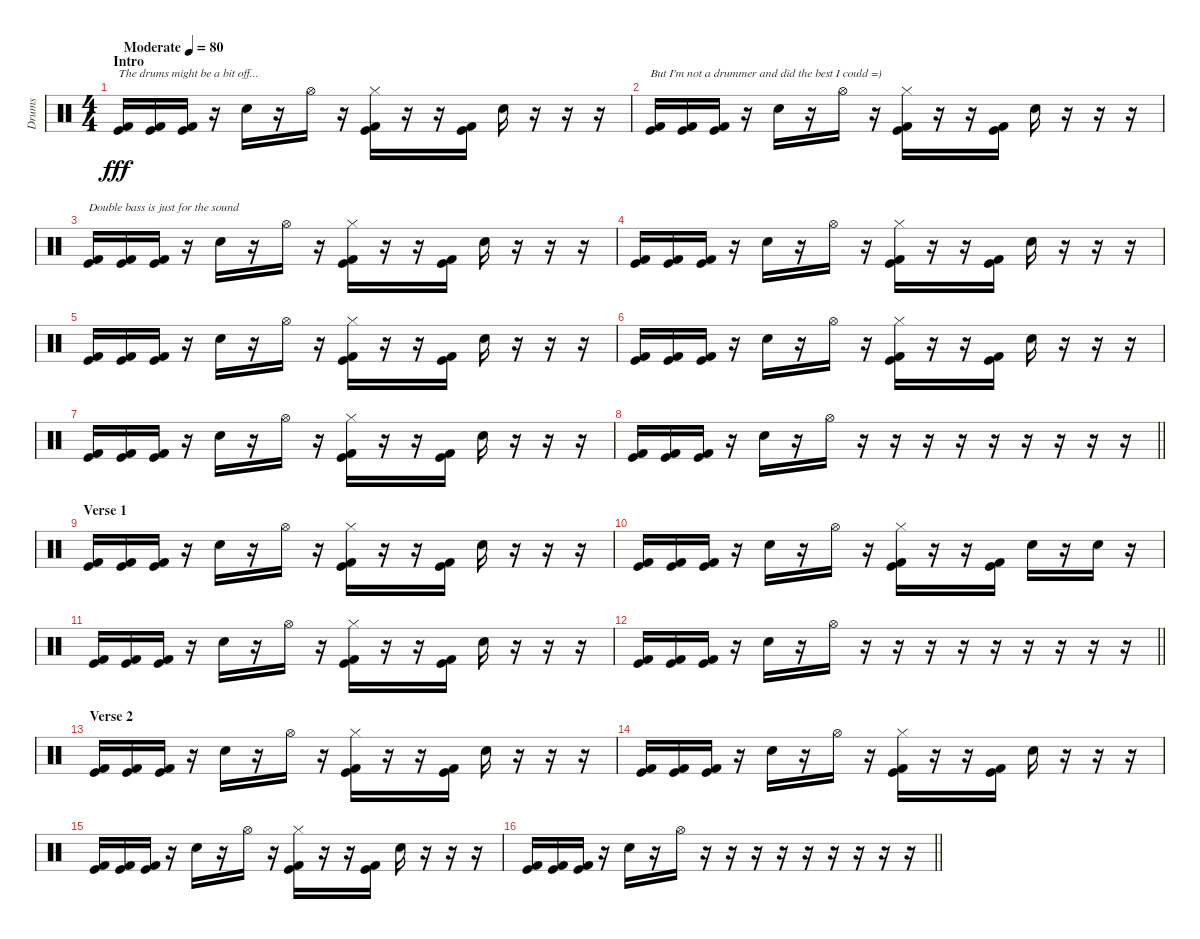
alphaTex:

\track ("Drums" "Drums") {instrument percussion}
\staff {score}
\articulation defaults
\ts (4 4)
\section ("" "Intro")
\tempo (80 "Moderate")
\clef neutral
\ks c
("Kick (hit)" "Kick (hit) 2").16{txt "The drums might be a bit off..." dy fff} ("Kick (hit)" "Kick (hit) 2").16 ("Kick (hit)" "Kick (hit) 2").16 r.16 "Snare (hit) 2".16 r.16 "Hi-Hat (open)".16 r.16 ("Hi-Hat (closed)" "Kick (hit)" "Kick (hit) 2").16 r.16 r.16 ("Kick (hit)" "Kick (hit) 2").16 "Snare (hit) 2".16 r.16 r.16 r.16 |
("Kick (hit)" "Kick (hit) 2").16{txt "But I'm not a drummer and did the best I could =)"} ("Kick (hit)" "Kick (hit) 2").16 ("Kick (hit)" "Kick (hit) 2").16 r.16 "Snare (hit) 2".16 r.16 "Hi-Hat (open)".16 r.16 ("Hi-Hat (closed)" "Kick (hit)" "Kick (hit) 2").16 r.16 r.16 ("Kick (hit)" "Kick (hit) 2").16 "Snare (hit) 2".16 r.16 r.16 r.16 |
("Kick (hit)" "Kick (hit) 2").16{txt "Double bass is just for the sound"} ("Kick (hit)" "Kick (hit) 2").16 ("Kick (hit)" "Kick (hit) 2").16 r.16 "Snare (hit) 2".16 r.16 "Hi-Hat (open)".16 r.16 ("Hi-Hat (closed)" "Kick (hit)" "Kick (hit) 2").16 r.16 r.16 ("Kick (hit)" "Kick (hit) 2").16 "Snare (hit) 2".16 r.16 r.16 r.16 |
("Kick (hit)" "Kick (hit) 2").16 ("Kick (hit)" "Kick (hit) 2").16 ("Kick (hit)" "Kick (hit) 2").16 r.16 "Snare (hit) 2".16 r.16 "Hi-Hat (open)".16 r.16 ("Hi-Hat (closed)" "Kick (hit)" "Kick (hit) 2").16 r.16 r.16 ("Kick (hit)" "Kick (hit) 2").16 "Snare (hit) 2".16 r.16 r.16 r.16 |
("Kick (hit)" "Kick (hit) 2").16 ("Kick (hit)" "Kick (hit) 2").16 ("Kick (hit)" "Kick (hit) 2").16 r.16 "Snare (hit) 2".16 r.16 "Hi-Hat (open)".16 r.16 ("Hi-Hat (closed)" "Kick (hit)" "Kick (hit) 2").16 r.16 r.16 ("Kick (hit)" "Kick (hit) 2").16 "Snare (hit) 2".16 r.16 r.16 r.16 |
("Kick (hit)" "Kick (hit) 2").16 ("Kick (hit)" "Kick (hit) 2").16 ("Kick (hit)" "Kick (hit) 2").16 r.16 "Snare (hit) 2".16 r.16 "Hi-Hat (open)".16 r.16 ("Hi-Hat (closed)" "Kick (hit)" "Kick (hit) 2").16 r.16 r.16 ("Kick (hit)" "Kick (hit) 2").16 "Snare (hit) 2".16 r.16 r.16 r.16 |
("Kick (hit)" "Kick (hit) 2").16 ("Kick (hit)" "Kick (hit) 2").16 ("Kick (hit)" "Kick (hit) 2").16 r.16 "Snare (hit) 2".16 r.16 "Hi-Hat (open)".16 r.16 ("Hi-Hat (closed)" "Kick (hit)" "Kick (hit) 2").16 r.16 r.16 ("Kick (hit)" "Kick (hit) 2").16 "Snare (hit) 2".16 r.16 r.16 r.16 |
\barLineRight lightlight
("Kick (hit)" "Kick (hit) 2").16 ("Kick (hit)" "Kick (hit) 2").16 ("Kick (hit)" "Kick (hit) 2").16 r.16 "Snare (hit) 2".16 r.16 "Hi-Hat (open)".16 r.16 r.16 r.16 r.16 r.16 r.16 r.16 r.16 r.16 |
\section ("" "Verse 1")
("Kick (hit)" "Kick (hit) 2").16 ("Kick (hit)" "Kick (hit) 2").16 ("Kick (hit)" "Kick (hit) 2").16 r.16 "Snare (hit) 2".16 r.16 "Hi-Hat (open)".16 r.16 ("Hi-Hat (closed)" "Kick (hit)" "Kick (hit) 2").16 r.16 r.16 ("Kick (hit)" "Kick (hit) 2").16 "Snare (hit) 2".16 r.16 r.16 r.16 |
("Kick (hit)" "Kick (hit) 2").16 ("Kick (hit)" "Kick (hit) 2").16 ("Kick (hit)" "Kick (hit) 2").16 r.16 "Snare (hit) 2".16 r.16 "Hi-Hat (open)".16 r.16 ("Hi-Hat (closed)" "Kick (hit)" "Kick (hit) 2").16 r.16 r.16 ("Kick (hit)" "Kick (hit) 2").16 "Snare (hit) 2".16 r.16 "Snare (hit) 2".16 r.16 |
("Kick (hit)" "Kick (hit) 2").16 ("Kick (hit)" "Kick (hit) 2").16 ("Kick (hit)" "Kick (hit) 2").16 r.16 "Snare (hit) 2".16 r.16 "Hi-Hat (open)".16 r.16 ("Hi-Hat (closed)" "Kick (hit)" "Kick (hit) 2").16 r.16 r.16 ("Kick (hit)" "Kick (hit) 2").16 "Snare (hit) 2".16 r.16 r.16 r.16 |
\barLineRight lightlight
("Kick (hit)" "Kick (hit) 2").16 ("Kick (hit)" "Kick (hit) 2").16 ("Kick (hit)" "Kick (hit) 2").16 r.16 "Snare (hit) 2".16 r.16 "Hi-Hat (open)".16 r.16 r.16 r.16 r.16 r.16 r.16 r.16 r.16 r.16 |
\section ("" "Verse 2")
("Kick (hit)" "Kick (hit) 2").16 ("Kick (hit)" "Kick (hit) 2").16 ("Kick (hit)" "Kick (hit) 2").16 r.16 "Snare (hit) 2".16 r.16 "Hi-Hat (open)".16 r.16 ("Hi-Hat (closed)" "Kick (hit)" "Kick (hit) 2").16 r.16 r.16 ("Kick (hit)" "Kick (hit) 2").16 "Snare (hit) 2".16 r.16 r.16 r.16 |
("Kick (hit)" "Kick (hit) 2").16 ("Kick (hit)" "Kick (hit) 2").16 ("Kick (hit)" "Kick (hit) 2").16 r.16 "Snare (hit) 2".16 r.16 "Hi-Hat (open)".16 r.16 ("Hi-Hat (closed)" "Kick (hit)" "Kick (hit) 2").16 r.16 r.16 ("Kick (hit)" "Kick (hit) 2").16 "Snare (hit) 2".16 r.16 r.16 r.16 |
("Kick (hit)" "Kick (hit) 2").16 ("Kick (hit)" "Kick (hit) 2").16 ("Kick (hit)" "Kick (hit) 2").16 r.16 "Snare (hit) 2".16 r.16 "Hi-Hat (open)".16 r.16 ("Hi-Hat (closed)" "Kick (hit)" "Kick (hit) 2").16 r.16 r.16 ("Kick (hit)" "Kick (hit) 2").16 "Snare (hit) 2".16 r.16 r.16 r.16 |
\barLineRight lightlight
("Kick (hit)" "Kick (hit) 2").16 ("Kick (hit)" "Kick (hit) 2").16 ("Kick (hit)" "Kick (hit) 2").16 r.16 "Snare (hit) 2".16 r.16 "Hi-Hat (open)".16 r.16 r.16 r.16 r.16 r.16 r.16 r.16 r.16 r.16
